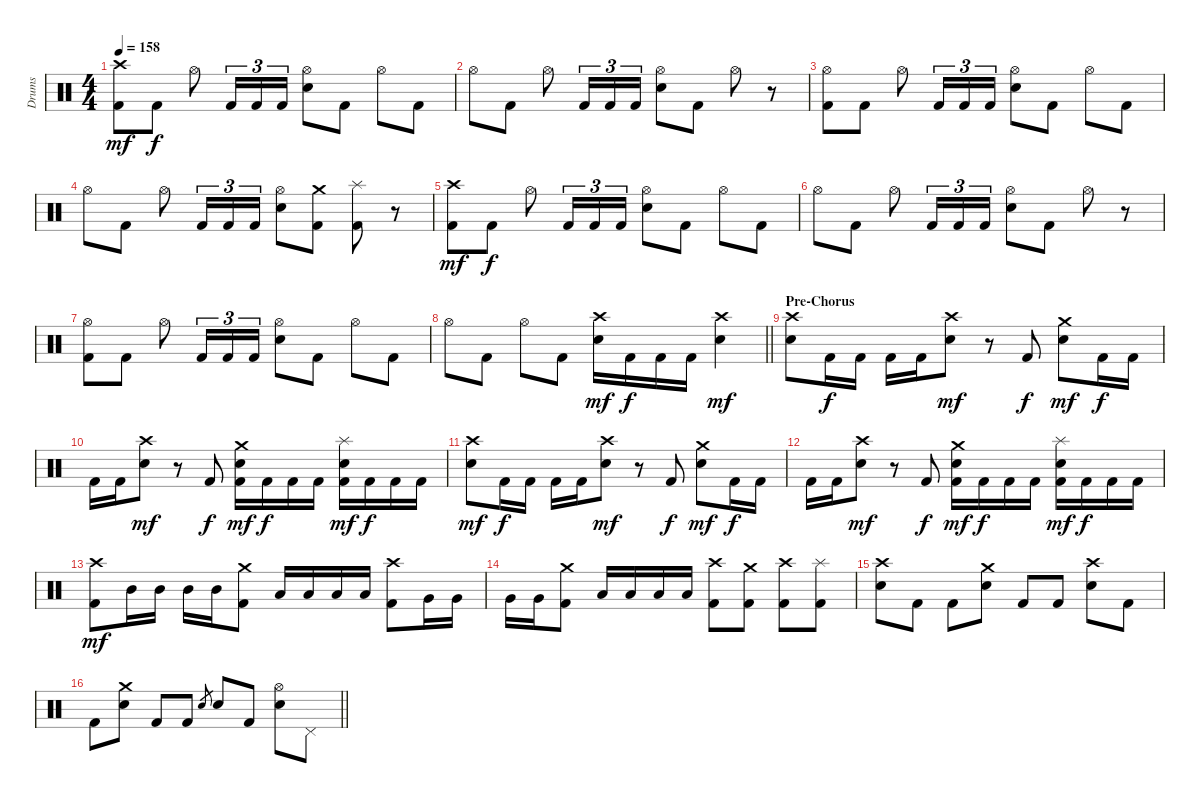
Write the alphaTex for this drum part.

\track ("Drums" "Drums") {instrument percussion}
\staff {score}
\articulation defaults
\ts (4 4)
\tempo 158
\clef neutral
\ks c
("Crash high (hit)" "Kick (hit) 2").8{dy mf} "Kick (hit) 2".8{dy f} "Hi-Hat (open)".8 "Kick (hit) 2".16{tu (3 2)} "Kick (hit) 2".16{tu (3 2)} "Kick (hit) 2".16{tu (3 2)} ("Hi-Hat (open)" "Snare (hit) 2").8 "Kick (hit) 2".8 "Hi-Hat (open)".8 "Kick (hit) 2".8 |
"Hi-Hat (open)".8 "Kick (hit) 2".8 "Hi-Hat (open)".8 "Kick (hit) 2".16{tu (3 2)} "Kick (hit) 2".16{tu (3 2)} "Kick (hit) 2".16{tu (3 2)} ("Hi-Hat (open)" "Snare (hit) 2").8 "Kick (hit) 2".8 "Hi-Hat (open)".8 r.8 |
("Hi-Hat (open)" "Kick (hit) 2").8 "Kick (hit) 2".8 "Hi-Hat (open)".8 "Kick (hit) 2".16{tu (3 2)} "Kick (hit) 2".16{tu (3 2)} "Kick (hit) 2".16{tu (3 2)} ("Hi-Hat (open)" "Snare (hit) 2").8 "Kick (hit) 2".8 "Hi-Hat (open)".8 "Kick (hit) 2".8 |
"Hi-Hat (open)".8 "Kick (hit) 2".8 "Hi-Hat (open)".8 "Kick (hit) 2".16{tu (3 2)} "Kick (hit) 2".16{tu (3 2)} "Kick (hit) 2".16{tu (3 2)} ("Hi-Hat (open)" "Snare (hit) 2").8 ("Crash medium (hit)" "Kick (hit) 2").8 ("Splash (hit)" "Kick (hit) 2").8 r.8 |
("Crash high (hit)" "Kick (hit) 2").8{dy mf} "Kick (hit) 2".8{dy f} "Hi-Hat (open)".8 "Kick (hit) 2".16{tu (3 2)} "Kick (hit) 2".16{tu (3 2)} "Kick (hit) 2".16{tu (3 2)} ("Hi-Hat (open)" "Snare (hit) 2").8 "Kick (hit) 2".8 "Hi-Hat (open)".8 "Kick (hit) 2".8 |
"Hi-Hat (open)".8 "Kick (hit) 2".8 "Hi-Hat (open)".8 "Kick (hit) 2".16{tu (3 2)} "Kick (hit) 2".16{tu (3 2)} "Kick (hit) 2".16{tu (3 2)} ("Hi-Hat (open)" "Snare (hit) 2").8 "Kick (hit) 2".8 "Hi-Hat (open)".8 r.8 |
("Hi-Hat (open)" "Kick (hit) 2").8 "Kick (hit) 2".8 "Hi-Hat (open)".8 "Kick (hit) 2".16{tu (3 2)} "Kick (hit) 2".16{tu (3 2)} "Kick (hit) 2".16{tu (3 2)} ("Hi-Hat (open)" "Snare (hit) 2").8 "Kick (hit) 2".8 "Hi-Hat (open)".8 "Kick (hit) 2".8 |
\barLineRight lightlight "Hi-Hat (open)".8 "Kick (hit) 2".8 "Hi-Hat (open)".8 "Kick (hit) 2".8
("Crash high (hit)" "Snare (hit) 2").16{dy mf} "Kick (hit) 2".16{dy f} "Kick (hit) 2".16 "Kick (hit) 2".16 ("Crash high (hit)" "Snare (hit) 2").4{dy mf} |
\section ("" "Pre-Chorus")
("Crash high (hit)" "Snare (hit) 2").8 "Kick (hit) 2".16{dy f} "Kick (hit) 2".16 "Kick (hit) 2".16 "Kick (hit) 2".16 ("Crash high (hit)" "Snare (hit) 2").8{dy mf} r.8 "Kick (hit) 2".8{dy f} ("Crash medium (hit)" "Snare (hit) 2").8{dy mf} "Kick (hit) 2".16{dy f} "Kick (hit) 2".16 |
"Kick (hit) 2".16 "Kick (hit) 2".16 ("Crash high (hit)" "Snare (hit) 2").8{dy mf} r.8 "Kick (hit) 2".8{dy f} ("Crash medium (hit)" "Snare (hit) 2" "Kick (hit) 2").16{dy mf} "Kick (hit) 2".16{dy f} "Kick (hit) 2".16 "Kick (hit) 2".16 ("Splash (hit)" "Snare (hit) 2" "Kick (hit) 2").16{dy mf} "Kick (hit) 2".16{dy f} "Kick (hit) 2".16 "Kick (hit) 2".16 |
("Crash high (hit)" "Snare (hit) 2").8{dy mf} "Kick (hit) 2".16{dy f} "Kick (hit) 2".16 "Kick (hit) 2".16 "Kick (hit) 2".16 ("Crash high (hit)" "Snare (hit) 2").8{dy mf} r.8 "Kick (hit) 2".8{dy f} ("Crash medium (hit)" "Snare (hit) 2").8{dy mf} "Kick (hit) 2".16{dy f} "Kick (hit) 2".16 |
"Kick (hit) 2".16 "Kick (hit) 2".16 ("Crash high (hit)" "Snare (hit) 2").8{dy mf} r.8 "Kick (hit) 2".8{dy f} ("Crash medium (hit)" "Snare (hit) 2" "Kick (hit) 2").16{dy mf} "Kick (hit) 2".16{dy f} "Kick (hit) 2".16 "Kick (hit) 2".16 ("Splash (hit)" "Snare (hit) 2" "Kick (hit) 2").16{dy mf} "Kick (hit) 2".16{dy f} "Kick (hit) 2".16 "Kick (hit) 2".16 |
("Crash high (hit)" "Kick (hit) 2").8{dy mf} "Mid Tom (hit)".16 "Mid Tom (hit)".16 "Mid Tom (hit)".16 "Mid Tom (hit)".16 ("Crash medium (hit)" "Kick (hit) 2").8 "Low Tom (hit)".16 "Low Tom (hit)".16 "Low Tom (hit)".16 "Low Tom (hit)".16 ("Crash high (hit)" "Kick (hit) 2").8 "Very Low Tom (hit)".16 "Very Low Tom (hit)".16 |
"Very Low Tom (hit)".16 "Very Low Tom (hit)".16 ("Crash medium (hit)" "Kick (hit) 2").8 "Low Floor Tom (hit)".16 "Low Floor Tom (hit)".16 "Low Floor Tom (hit)".16 "Low Floor Tom (hit)".16 ("Crash high (hit)" "Kick (hit) 2").8 ("Crash medium (hit)" "Kick (hit) 2").8 ("Crash high (hit)" "Kick (hit) 2").8 ("Splash (hit)" "Kick (hit) 2").8 |
("Crash high (hit)" "Snare (hit) 2").8 "Kick (hit) 2".8 "Kick (hit) 2".8 ("Crash medium (hit)" "Snare (hit) 2").8 "Kick (hit) 2".8 "Kick (hit) 2".8 ("Crash high (hit)" "Snare (hit) 2").8 "Kick (hit) 2".8 |
\barLineRight lightlight "Kick (hit) 2".8
("Crash medium (hit)" "Snare (hit) 2").8 "Kick (hit) 2".8 "Kick (hit) 2".8 "Snare (hit) 2".8{gr} "Snare (hit) 2".8 "Kick (hit) 2".8 ("Hi-Hat (open)" "Snare (hit) 2").8 "Pedal Hi-Hat (hit)".8
